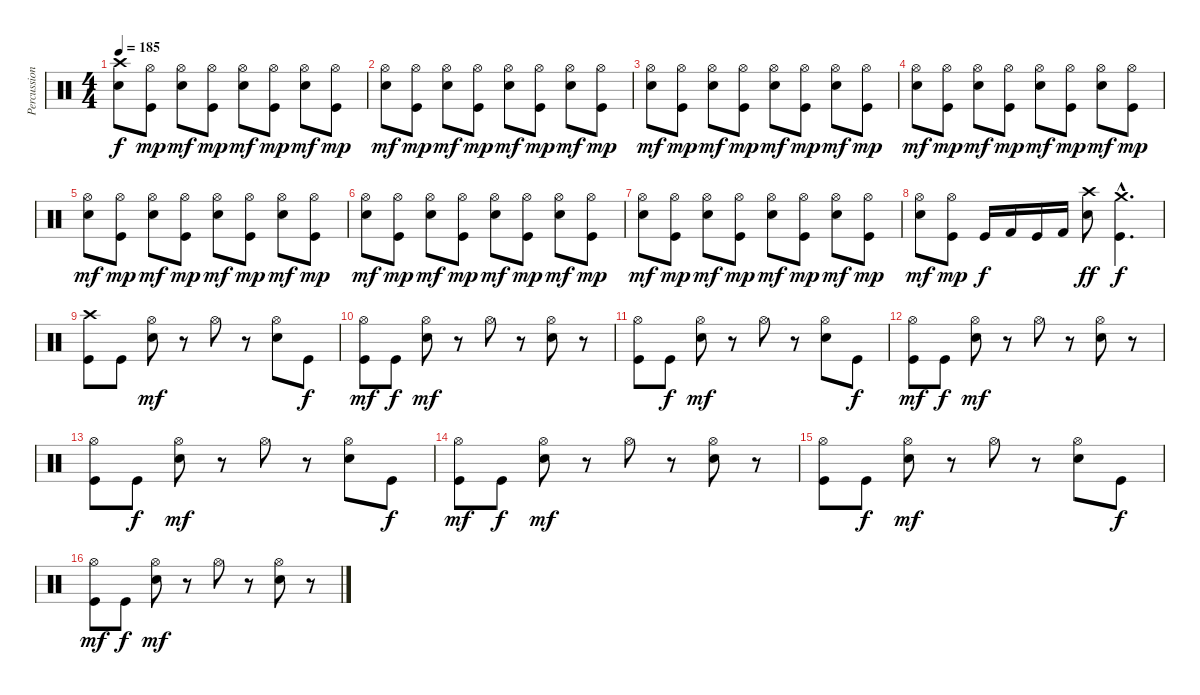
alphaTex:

\track ("Percussions" "Percussion") {instrument percussion}
\staff {score}
\articulation defaults
\ts (4 4)
\tempo 185
\clef neutral
\ks c
("Electric Snare (hit)" "Crash high (hit)").8{dy f} ("Kick (hit)" "Hi-Hat (open)").8{dy mp} ("Electric Snare (hit)" "Hi-Hat (open)").8{dy mf} ("Kick (hit)" "Hi-Hat (open)").8{dy mp} ("Electric Snare (hit)" "Hi-Hat (open)").8{dy mf} ("Kick (hit)" "Hi-Hat (open)").8{dy mp} ("Electric Snare (hit)" "Hi-Hat (open)").8{dy mf} ("Kick (hit)" "Hi-Hat (open)").8{dy mp} |
("Electric Snare (hit)" "Hi-Hat (open)").8{dy mf} ("Kick (hit)" "Hi-Hat (open)").8{dy mp} ("Electric Snare (hit)" "Hi-Hat (open)").8{dy mf} ("Kick (hit)" "Hi-Hat (open)").8{dy mp} ("Electric Snare (hit)" "Hi-Hat (open)").8{dy mf} ("Kick (hit)" "Hi-Hat (open)").8{dy mp} ("Electric Snare (hit)" "Hi-Hat (open)").8{dy mf} ("Kick (hit)" "Hi-Hat (open)").8{dy mp} |
("Electric Snare (hit)" "Hi-Hat (open)").8{dy mf} ("Kick (hit)" "Hi-Hat (open)").8{dy mp} ("Electric Snare (hit)" "Hi-Hat (open)").8{dy mf} ("Kick (hit)" "Hi-Hat (open)").8{dy mp} ("Electric Snare (hit)" "Hi-Hat (open)").8{dy mf} ("Kick (hit)" "Hi-Hat (open)").8{dy mp} ("Electric Snare (hit)" "Hi-Hat (open)").8{dy mf} ("Kick (hit)" "Hi-Hat (open)").8{dy mp} |
("Electric Snare (hit)" "Hi-Hat (open)").8{dy mf} ("Kick (hit)" "Hi-Hat (open)").8{dy mp} ("Electric Snare (hit)" "Hi-Hat (open)").8{dy mf} ("Kick (hit)" "Hi-Hat (open)").8{dy mp} ("Electric Snare (hit)" "Hi-Hat (open)").8{dy mf} ("Kick (hit)" "Hi-Hat (open)").8{dy mp} ("Electric Snare (hit)" "Hi-Hat (open)").8{dy mf} ("Kick (hit)" "Hi-Hat (open)").8{dy mp} |
("Electric Snare (hit)" "Hi-Hat (open)").8{dy mf} ("Kick (hit)" "Hi-Hat (open)").8{dy mp} ("Electric Snare (hit)" "Hi-Hat (open)").8{dy mf} ("Kick (hit)" "Hi-Hat (open)").8{dy mp} ("Electric Snare (hit)" "Hi-Hat (open)").8{dy mf} ("Kick (hit)" "Hi-Hat (open)").8{dy mp} ("Electric Snare (hit)" "Hi-Hat (open)").8{dy mf} ("Kick (hit)" "Hi-Hat (open)").8{dy mp} |
("Electric Snare (hit)" "Hi-Hat (open)").8{dy mf} ("Kick (hit)" "Hi-Hat (open)").8{dy mp} ("Electric Snare (hit)" "Hi-Hat (open)").8{dy mf} ("Kick (hit)" "Hi-Hat (open)").8{dy mp} ("Electric Snare (hit)" "Hi-Hat (open)").8{dy mf} ("Kick (hit)" "Hi-Hat (open)").8{dy mp} ("Electric Snare (hit)" "Hi-Hat (open)").8{dy mf} ("Kick (hit)" "Hi-Hat (open)").8{dy mp} |
("Electric Snare (hit)" "Hi-Hat (open)").8{dy mf} ("Kick (hit)" "Hi-Hat (open)").8{dy mp} ("Electric Snare (hit)" "Hi-Hat (open)").8{dy mf} ("Kick (hit)" "Hi-Hat (open)").8{dy mp} ("Electric Snare (hit)" "Hi-Hat (open)").8{dy mf} ("Kick (hit)" "Hi-Hat (open)").8{dy mp} ("Electric Snare (hit)" "Hi-Hat (open)").8{dy mf} ("Kick (hit)" "Hi-Hat (open)").8{dy mp} |
("Electric Snare (hit)" "Hi-Hat (open)").8{dy mf} ("Kick (hit)" "Hi-Hat (open)").8{dy mp} "Kick (hit)".16{dy f} "Kick (hit) 2".16 "Kick (hit)".16 "Kick (hit) 2".16 ("Electric Snare (hit)" "Crash high (hit)").8{dy ff} ("Kick (hit)"{hac} "Crash medium (hit)"{hac}).4{d dy f} |
("Kick (hit)" "Crash high (hit)").8 "Kick (hit)".8 ("Electric Snare (hit)" "Hi-Hat (open)").8{dy mf} r.8 "Hi-Hat (open)".8 r.8 ("Electric Snare (hit)" "Hi-Hat (open)").8 "Kick (hit)".8{dy f} |
("Kick (hit)" "Hi-Hat (open)").8{dy mf} "Kick (hit)".8{dy f} ("Electric Snare (hit)" "Hi-Hat (open)").8{dy mf} r.8 "Hi-Hat (open)".8 r.8 ("Electric Snare (hit)" "Hi-Hat (open)").8 r.8 |
("Kick (hit)" "Hi-Hat (open)").8 "Kick (hit)".8{dy f} ("Electric Snare (hit)" "Hi-Hat (open)").8{dy mf} r.8 "Hi-Hat (open)".8 r.8 ("Electric Snare (hit)" "Hi-Hat (open)").8 "Kick (hit)".8{dy f} |
("Kick (hit)" "Hi-Hat (open)").8{dy mf} "Kick (hit)".8{dy f} ("Electric Snare (hit)" "Hi-Hat (open)").8{dy mf} r.8 "Hi-Hat (open)".8 r.8 ("Electric Snare (hit)" "Hi-Hat (open)").8 r.8 |
("Kick (hit)" "Hi-Hat (open)").8 "Kick (hit)".8{dy f} ("Electric Snare (hit)" "Hi-Hat (open)").8{dy mf} r.8 "Hi-Hat (open)".8 r.8 ("Electric Snare (hit)" "Hi-Hat (open)").8 "Kick (hit)".8{dy f} |
("Kick (hit)" "Hi-Hat (open)").8{dy mf} "Kick (hit)".8{dy f} ("Electric Snare (hit)" "Hi-Hat (open)").8{dy mf} r.8 "Hi-Hat (open)".8 r.8 ("Electric Snare (hit)" "Hi-Hat (open)").8 r.8 |
("Kick (hit)" "Hi-Hat (open)").8 "Kick (hit)".8{dy f} ("Electric Snare (hit)" "Hi-Hat (open)").8{dy mf} r.8 "Hi-Hat (open)".8 r.8 ("Electric Snare (hit)" "Hi-Hat (open)").8 "Kick (hit)".8{dy f} |
("Kick (hit)" "Hi-Hat (open)").8{dy mf} "Kick (hit)".8{dy f} ("Electric Snare (hit)" "Hi-Hat (open)").8{dy mf} r.8 "Hi-Hat (open)".8 r.8 ("Electric Snare (hit)" "Hi-Hat (open)").8 r.8
